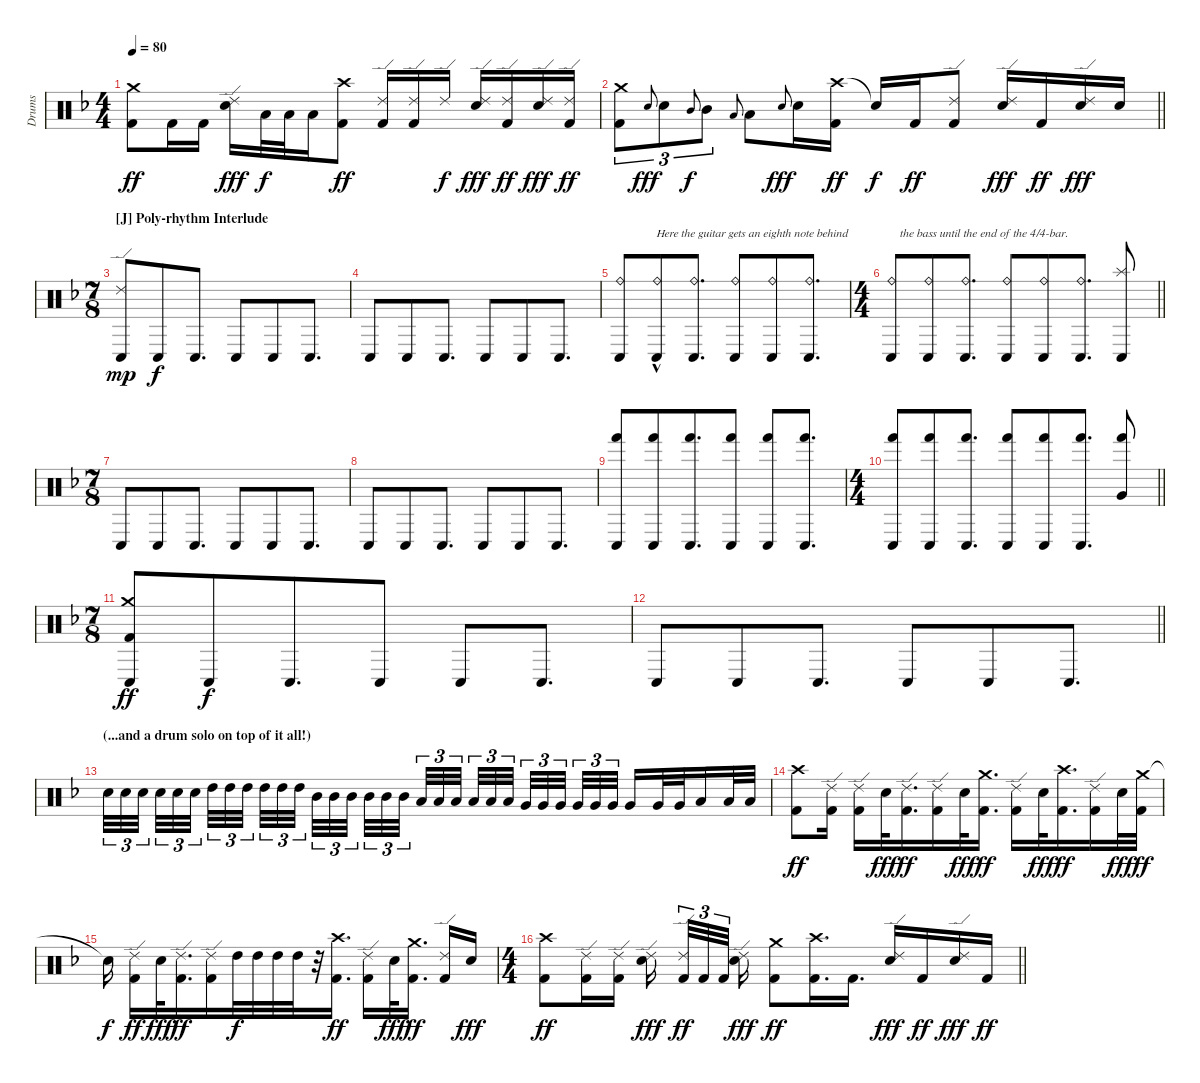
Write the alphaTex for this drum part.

\track ("Drums" "Drums") {instrument percussion}
\staff {score}
\articulation defaults
\ts (4 4)
\tempo 80
\clef neutral
\ks dminor
("Crash medium (hit)" "Kick (hit) 2").8{dy ff} "Kick (hit) 2".16 "Kick (hit) 2".16 ("Ride (edge) 2" "Electric Snare (hit)").16{dy fff} "Low Tom (hit)".32{dy f} "Low Tom (hit)".32 "Low Tom (hit)".16 ("Crash high (hit)" "Kick (hit) 2").8{dy ff} ("Ride (edge) 2" "Kick (hit) 2").16 ("Ride (edge) 2" "Kick (hit) 2").16 "Ride (edge) 2".16{dy f} ("Ride (edge) 2" "Electric Snare (hit)").16{dy fff} ("Ride (edge) 2" "Kick (hit) 2").16{dy ff} ("Ride (edge) 2" "Electric Snare (hit)").16{dy fff} ("Ride (edge) 2" "Kick (hit) 2").16{dy ff} |
\barLineRight lightlight
("Crash medium (hit)" "Kick (hit) 2").8{tu (3 2)} "Electric Snare (hit)".8{gr onbeat dy fff} "Electric Snare (hit)".8{tu (3 2)} "Mid Tom (hit)".8{gr onbeat dy f} "Mid Tom (hit)".8{tu (3 2)} "Low Tom (hit)".8{gr onbeat} "Low Tom (hit)".8 "Electric Snare (hit)".8{gr onbeat dy fff} "Electric Snare (hit)".16 ("Crash high (hit)" "Kick (hit) 2").16{dy ff} "Snare (hit)"{t}.16{dy f} "Kick (hit) 2".16{dy ff} ("Ride (edge) 2" "Kick (hit) 2").8 ("Ride (edge) 2" "Electric Snare (hit)").16{dy fff} "Kick (hit) 2".16{dy ff} ("Ride (edge) 2" "Electric Snare (hit)").16{dy fff} "Electric Snare (hit)".16 |
\ts (7 8)
\section ("" "[J] Poly-rhythm Interlude")
("Ride (edge) 2" "Conga low (hit)").8{dy mp beam Up} "Conga low (hit)".8{dy f beam Up beam merge} "Conga low (hit)".8{d beam Up beam split} "Conga low (hit)".8{beam Up beam merge} "Conga low (hit)".8{beam Up} "Conga low (hit)".8{d beam Up} |
"Conga low (hit)".8{beam Up} "Conga low (hit)".8{beam Up beam merge} "Conga low (hit)".8{d beam Up beam split} "Conga low (hit)".8{beam Up beam merge} "Conga low (hit)".8{beam Up} "Conga low (hit)".8{d beam Up} |
("Ride (bell)" "Conga low (hit)").8{beam Up} ("Ride (bell)"{hac} "Conga low (hit)"{hac}).8{txt "Here the guitar gets an eighth note behind" beam Up beam merge} ("Ride (bell)" "Conga low (hit)").8{d beam Up beam split} ("Ride (bell)" "Conga low (hit)").8{beam Up beam merge} ("Ride (bell)" "Conga low (hit)").8{beam Up} ("Ride (bell)" "Conga low (hit)").8{d beam Up} |
\ts (4 4)
\barLineRight lightlight
("Ride (bell)" "Conga low (hit)").8{txt "   the bass until the end of the 4/4-bar." beam Up} ("Ride (bell)" "Conga low (hit)").8{beam Up beam merge} ("Ride (bell)" "Conga low (hit)").8{d beam Up beam split} ("Ride (bell)" "Conga low (hit)").8{beam Up beam merge} ("Ride (bell)" "Conga low (hit)").8{beam Up} ("Ride (bell)" "Conga low (hit)").8{d beam Up} ("Splash (hit)" "Conga low (hit)").8{beam Up} |
\ts (7 8)
"Conga low (hit)".8{beam Up} "Conga low (hit)".8{beam Up beam merge} "Conga low (hit)".8{d beam Up beam split} "Conga low (hit)".8{beam Up beam merge} "Conga low (hit)".8{beam Up beam merge} "Conga low (hit)".8{d beam Up} |
"Conga low (hit)".8{beam Up} "Conga low (hit)".8{beam Up beam merge} "Conga low (hit)".8{d beam Up beam split} "Conga low (hit)".8{beam Up beam merge} "Conga low (hit)".8{beam Up beam merge} "Conga low (hit)".8{d beam Up} |
("Conga low (hit)" "Hand (hit)").8{beam Up} ("Conga low (hit)" "Hand (hit)").8{beam Up} ("Conga low (hit)" "Hand (hit)").8{d beam Up} ("Conga low (hit)" "Hand (hit)").8{beam Up} ("Conga low (hit)" "Hand (hit)").8{beam Up beam merge} ("Conga low (hit)" "Hand (hit)").8{d beam Up} |
\ts (4 4)
\barLineRight lightlight
("Conga low (hit)" "Hand (hit)").8{beam Up} ("Conga low (hit)" "Hand (hit)").8{beam Up beam merge} ("Conga low (hit)" "Hand (hit)").8{d beam Up beam split} ("Conga low (hit)" "Hand (hit)").8{beam Up beam merge} ("Conga low (hit)" "Hand (hit)").8{beam Up} ("Conga low (hit)" "Hand (hit)").8{d beam Up} ("Hand (hit)" "Very Low Tom (hit)").8{beam Up} |
\ts (7 8)
("Crash medium (hit)" "Conga low (hit)" "Kick (hit) 2").8{dy ff beam Up} "Conga low (hit)".8{dy f beam Up} "Conga low (hit)".8{d beam Up} "Conga low (hit)".8 "Conga low (hit)".8{beam merge} "Conga low (hit)".8{d} |
\barLineRight lightlight "Conga low (hit)".8 "Conga low (hit)".8{beam merge} "Conga low (hit)".8{d beam split} "Conga low (hit)".8{beam merge} "Conga low (hit)".8{beam merge} "Conga low (hit)".8{d}
|
\section ("" "(...and a drum solo on top of it all!)")
"Electric Snare (hit)".32{tu (3 2)} "Electric Snare (hit)".32{tu (3 2)} "Electric Snare (hit)".32{tu (3 2) beam splitsecondary} "Electric Snare (hit)".32{tu (3 2)} "Electric Snare (hit)".32{tu (3 2)} "Electric Snare (hit)".32{tu (3 2) beam split} "High Tom (hit)".32{tu (3 2)} "High Tom (hit)".32{tu (3 2)} "High Tom (hit)".32{tu (3 2) beam splitsecondary} "High Tom (hit)".32{tu (3 2)} "High Tom (hit)".32{tu (3 2)} "High Tom (hit)".32{tu (3 2)} "Mid Tom (hit)".32{tu (3 2)} "Mid Tom (hit)".32{tu (3 2)} "Mid Tom (hit)".32{tu (3 2) beam splitsecondary} "Mid Tom (hit)".32{tu (3 2)} "Mid Tom (hit)".32{tu (3 2)} "Mid Tom (hit)".32{tu (3 2)} "Low Tom (hit)".32{tu (3 2)} "Low Tom (hit)".32{tu (3 2)} "Low Tom (hit)".32{tu (3 2) beam splitsecondary} "Low Tom (hit)".32{tu (3 2)} "Low Tom (hit)".32{tu (3 2)} "Low Tom (hit)".32{tu (3 2)} "Very Low Tom (hit)".32{tu (3 2)} "Very Low Tom (hit)".32{tu (3 2)} "Very Low Tom (hit)".32{tu (3 2) beam splitsecondary} "Very Low Tom (hit)".32{tu (3 2)} "Very Low Tom (hit)".32{tu (3 2)} "Very Low Tom (hit)".32{tu (3 2)} "Very Low Tom (hit)".16 "Very Low Tom (hit)".32 "Very Low Tom (hit)".32 "Low Tom (hit)".16 "Low Tom (hit)".32 "Low Tom (hit)".32 |
("Crash high (hit)" "Kick (hit) 2").8{dy ff beam merge} ("Ride (edge) 2" "Kick (hit) 2").16{beam split} ("Ride (edge) 2" "Kick (hit) 2").16{beam merge} "Electric Snare (hit)".32{dy fff} ("Ride (edge) 2" "Kick (hit) 2").16{d dy ff} ("Ride (edge) 2" "Kick (hit) 2").16 "Electric Snare (hit)".32{dy fff} ("Crash medium (hit)" "Kick (hit) 2").16{d dy ff} ("Ride (edge) 2" "Kick (hit) 2").16{beam merge} "Electric Snare (hit)".32{dy fff} ("Crash high (hit)" "Kick (hit) 2").16{d dy ff} ("Ride (edge) 2" "Kick (hit) 2").16 "Electric Snare (hit)".32{dy fff} ("Crash medium (hit)" "Kick (hit) 2").32{dy ff} |
"Snare (hit)"{t}.16{dy f beam split} ("Ride (edge) 2" "Kick (hit) 2").16{dy ff beam merge} "Electric Snare (hit)".32{dy fff} ("Ride (edge) 2" "Kick (hit) 2").16{d dy ff} ("Ride (edge) 2" "Kick (hit) 2").16 "High Tom (hit)".32{dy f} "High Tom (hit)".32{beam merge} "High Tom (hit)".32 "High Tom (hit)".32 r.32 ("Crash high (hit)" "Kick (hit) 2").16{d dy ff beam split} ("Ride (edge) 2" "Kick (hit) 2").16{beam merge} "Electric Snare (hit)".32{dy fff beam merge} ("Crash medium (hit)" "Kick (hit) 2").16{d dy ff beam split} ("Ride (edge) 2" "Kick (hit) 2").16 "Electric Snare (hit)".16{dy fff} |
\ts (4 4)
\barLineRight lightlight
("Crash high (hit)" "Kick (hit) 2").8{dy ff} ("Ride (edge) 2" "Kick (hit) 2").16 ("Ride (edge) 2" "Kick (hit) 2").16 ("Ride (edge) 2" "Electric Snare (hit)").16{dy fff beam splitsecondary} ("Ride (edge) 2" "Kick (hit) 2").32{tu (3 2) dy ff} "Kick (hit) 2".32{tu (3 2)} "Kick (hit) 2".32{tu (3 2) beam splitsecondary} ("Ride (edge) 2" "Electric Snare (hit)").16{dy fff beam split} ("Crash medium (hit)" "Kick (hit) 2").8{dy ff beam merge} ("Crash high (hit)" "Kick (hit) 2").16{d} "Kick (hit) 2".16{d} ("Ride (edge) 2" "Electric Snare (hit)").16{dy fff} "Kick (hit) 2".16{dy ff} ("Ride (edge) 2" "Electric Snare (hit)").16{dy fff} "Kick (hit) 2".16{dy ff}
